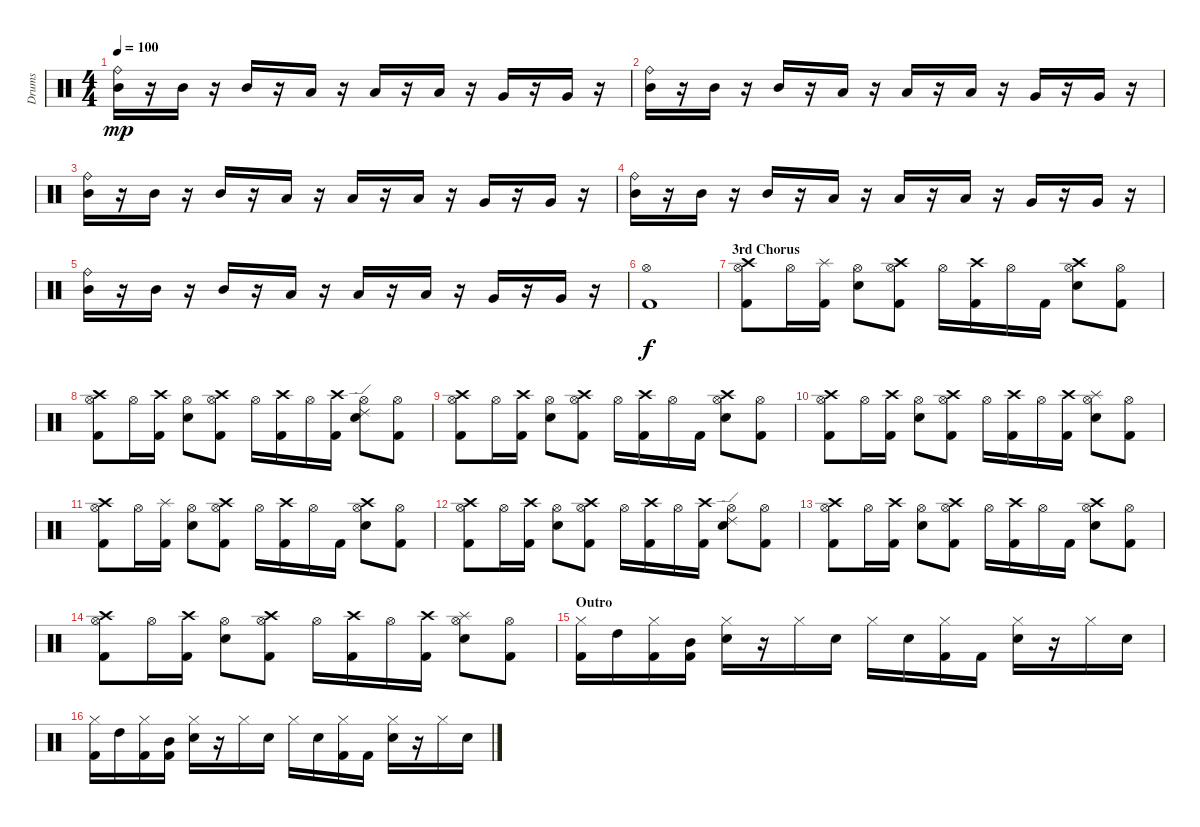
\track ("Drums" "Drums") {instrument percussion}
\staff {score}
\articulation defaults
\ts (4 4)
\tempo 100
\clef neutral
\ks c
("Mid Tom (hit)" "Ride (bell)").16{dy mp} r.16 "Mid Tom (hit)".16 r.16 "Mid Tom (hit)".16 r.16 "Low Tom (hit)".16 r.16 "Low Tom (hit)".16 r.16 "Low Tom (hit)".16 r.16 "Very Low Tom (hit)".16 r.16 "Very Low Tom (hit)".16 r.16 |
("Mid Tom (hit)" "Ride (bell)").16 r.16 "Mid Tom (hit)".16 r.16 "Mid Tom (hit)".16 r.16 "Low Tom (hit)".16 r.16 "Low Tom (hit)".16 r.16 "Low Tom (hit)".16 r.16 "Very Low Tom (hit)".16 r.16 "Very Low Tom (hit)".16 r.16 |
("Mid Tom (hit)" "Ride (bell)").16 r.16 "Mid Tom (hit)".16 r.16 "Mid Tom (hit)".16 r.16 "Low Tom (hit)".16 r.16 "Low Tom (hit)".16 r.16 "Low Tom (hit)".16 r.16 "Very Low Tom (hit)".16 r.16 "Very Low Tom (hit)".16 r.16 |
("Mid Tom (hit)" "Ride (bell)").16 r.16 "Mid Tom (hit)".16 r.16 "Mid Tom (hit)".16 r.16 "Low Tom (hit)".16 r.16 "Low Tom (hit)".16 r.16 "Low Tom (hit)".16 r.16 "Very Low Tom (hit)".16 r.16 "Very Low Tom (hit)".16 r.16 |
("Mid Tom (hit)" "Ride (bell)").16 r.16 "Mid Tom (hit)".16 r.16 "Mid Tom (hit)".16 r.16 "Low Tom (hit)".16 r.16 "Low Tom (hit)".16 r.16 "Low Tom (hit)".16 r.16 "Very Low Tom (hit)".16 r.16 "Very Low Tom (hit)".16 r.16 |
("Kick (hit) 2" "Hi-Hat (open)").1{dy f} |
\section ("" "3rd Chorus")
("Hi-Hat (open)" "Crash high (hit)" "Kick (hit) 2").8 "Hi-Hat (open)".16 ("Splash (hit)" "Kick (hit) 2").16 ("Hi-Hat (open)" "Electric Snare (hit)").8 ("Hi-Hat (open)" "Crash high (hit)" "Kick (hit) 2").8 "Hi-Hat (open)".16 ("Crash high (hit)" "Kick (hit) 2").16 "Hi-Hat (open)".16 "Kick (hit) 2".16 ("Hi-Hat (open)" "Crash high (hit)" "Electric Snare (hit)").8 ("Hi-Hat (open)" "Kick (hit) 2").8 |
("Hi-Hat (open)" "Crash high (hit)" "Kick (hit) 2").8 "Hi-Hat (open)".16 ("Crash high (hit)" "Kick (hit) 2").16 ("Hi-Hat (open)" "Electric Snare (hit)").8 ("Hi-Hat (open)" "Crash high (hit)" "Kick (hit) 2").8 "Hi-Hat (open)".16 ("Crash high (hit)" "Kick (hit) 2").16 "Hi-Hat (open)".16 ("Crash high (hit)" "Kick (hit) 2").16 ("Hi-Hat (open)" "Ride (edge) 2" "Electric Snare (hit)").8 ("Hi-Hat (open)" "Kick (hit) 2").8 |
("Hi-Hat (open)" "Crash high (hit)" "Kick (hit) 2").8 "Hi-Hat (open)".16 ("Crash high (hit)" "Kick (hit) 2").16 ("Hi-Hat (open)" "Electric Snare (hit)").8 ("Hi-Hat (open)" "Crash high (hit)" "Kick (hit) 2").8 "Hi-Hat (open)".16 ("Crash high (hit)" "Kick (hit) 2").16 "Hi-Hat (open)".16 "Kick (hit) 2".16 ("Hi-Hat (open)" "Crash high (hit)" "Electric Snare (hit)").8 ("Hi-Hat (open)" "Kick (hit) 2").8 |
("Hi-Hat (open)" "Crash high (hit)" "Kick (hit) 2").8 "Hi-Hat (open)".16 ("Crash high (hit)" "Kick (hit) 2").16 ("Hi-Hat (open)" "Electric Snare (hit)").8 ("Hi-Hat (open)" "Crash high (hit)" "Kick (hit) 2").8 "Hi-Hat (open)".16 ("Crash high (hit)" "Kick (hit) 2").16 "Hi-Hat (open)".16 ("Crash high (hit)" "Kick (hit) 2").16 ("Hi-Hat (open)" "Splash (hit)" "Electric Snare (hit)").8 ("Hi-Hat (open)" "Kick (hit) 2").8 |
("Hi-Hat (open)" "Crash high (hit)" "Kick (hit) 2").8 "Hi-Hat (open)".16 ("Splash (hit)" "Kick (hit) 2").16 ("Hi-Hat (open)" "Electric Snare (hit)").8 ("Hi-Hat (open)" "Crash high (hit)" "Kick (hit) 2").8 "Hi-Hat (open)".16 ("Crash high (hit)" "Kick (hit) 2").16 "Hi-Hat (open)".16 "Kick (hit) 2".16 ("Hi-Hat (open)" "Crash high (hit)" "Electric Snare (hit)").8 ("Hi-Hat (open)" "Kick (hit) 2").8 |
("Hi-Hat (open)" "Crash high (hit)" "Kick (hit) 2").8 "Hi-Hat (open)".16 ("Crash high (hit)" "Kick (hit) 2").16 ("Hi-Hat (open)" "Electric Snare (hit)").8 ("Hi-Hat (open)" "Crash high (hit)" "Kick (hit) 2").8 "Hi-Hat (open)".16 ("Crash high (hit)" "Kick (hit) 2").16 "Hi-Hat (open)".16 ("Crash high (hit)" "Kick (hit) 2").16 ("Hi-Hat (open)" "Ride (edge) 2" "Electric Snare (hit)").8 ("Hi-Hat (open)" "Kick (hit) 2").8 |
("Hi-Hat (open)" "Crash high (hit)" "Kick (hit) 2").8 "Hi-Hat (open)".16 ("Crash high (hit)" "Kick (hit) 2").16 ("Hi-Hat (open)" "Electric Snare (hit)").8 ("Hi-Hat (open)" "Crash high (hit)" "Kick (hit) 2").8 "Hi-Hat (open)".16 ("Crash high (hit)" "Kick (hit) 2").16 "Hi-Hat (open)".16 "Kick (hit) 2".16 ("Hi-Hat (open)" "Crash high (hit)" "Electric Snare (hit)").8 ("Hi-Hat (open)" "Kick (hit) 2").8 |
("Hi-Hat (open)" "Crash high (hit)" "Kick (hit) 2").8 "Hi-Hat (open)".16 ("Crash high (hit)" "Kick (hit) 2").16 ("Hi-Hat (open)" "Electric Snare (hit)").8 ("Hi-Hat (open)" "Crash high (hit)" "Kick (hit) 2").8 "Hi-Hat (open)".16 ("Crash high (hit)" "Kick (hit) 2").16 "Hi-Hat (open)".16 ("Crash high (hit)" "Kick (hit) 2").16 ("Hi-Hat (open)" "Splash (hit)" "Electric Snare (hit)").8 ("Hi-Hat (open)" "Kick (hit) 2").8 |
\section ("" "Outro")
("Hi-Hat (closed)" "Kick (hit) 2").16 "High Tom (hit)".16 ("Hi-Hat (closed)" "Kick (hit) 2").16 ("Mid Tom (hit)" "Kick (hit) 2").16 ("Hi-Hat (closed)" "Electric Snare (hit)").16 r.16 "Hi-Hat (closed)".16 "Electric Snare (hit)".16 "Hi-Hat (closed)".16 "Electric Snare (hit)".16 ("Hi-Hat (closed)" "Kick (hit) 2").16 "Kick (hit) 2".16 ("Hi-Hat (closed)" "Electric Snare (hit)").16 r.16 "Hi-Hat (closed)".16 "Electric Snare (hit)".16 |
("Hi-Hat (closed)" "Kick (hit) 2").16 "High Tom (hit)".16 ("Hi-Hat (closed)" "Kick (hit) 2").16 ("Mid Tom (hit)" "Kick (hit) 2").16 ("Hi-Hat (closed)" "Electric Snare (hit)").16 r.16 "Hi-Hat (closed)".16 "Electric Snare (hit)".16 "Hi-Hat (closed)".16 "Electric Snare (hit)".16 ("Hi-Hat (closed)" "Kick (hit) 2").16 "Kick (hit) 2".16 ("Hi-Hat (closed)" "Electric Snare (hit)").16 r.16 "Hi-Hat (closed)".16 "Electric Snare (hit)".16
